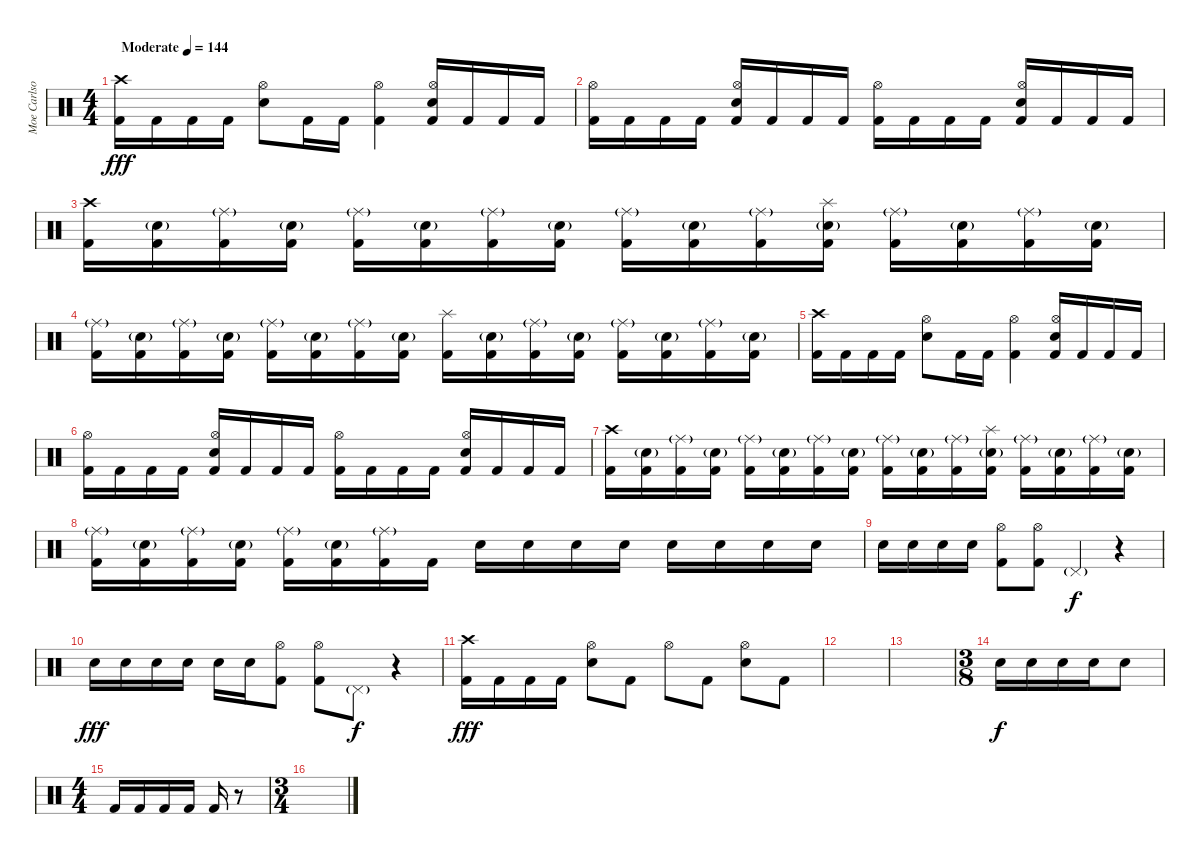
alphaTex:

\track ("Moe Carlson" "Moe Carlso") {solo instrument percussion}
\staff {score}
\articulation defaults
\ts (4 4)
\tempo (144 "Moderate")
\clef neutral
\ks c
("Crash high (hit)" "Kick (hit) 2").16{dy fff} "Kick (hit) 2".16 "Kick (hit) 2".16 "Kick (hit) 2".16 ("Hi-Hat (open)" "Electric Snare (hit)").8 "Kick (hit) 2".16 "Kick (hit) 2".16 ("Hi-Hat (open)" "Kick (hit) 2").4 ("Hi-Hat (open)" "Electric Snare (hit)" "Kick (hit) 2").16 "Kick (hit) 2".16 "Kick (hit) 2".16 "Kick (hit) 2".16 |
("Hi-Hat (open)" "Kick (hit) 2").16 "Kick (hit) 2".16 "Kick (hit) 2".16 "Kick (hit) 2".16 ("Hi-Hat (open)" "Electric Snare (hit)" "Kick (hit) 2").16 "Kick (hit) 2".16 "Kick (hit) 2".16 "Kick (hit) 2".16 ("Hi-Hat (open)" "Kick (hit) 2").16 "Kick (hit) 2".16 "Kick (hit) 2".16 "Kick (hit) 2".16 ("Hi-Hat (open)" "Electric Snare (hit)" "Kick (hit) 2").16 "Kick (hit) 2".16 "Kick (hit) 2".16 "Kick (hit) 2".16 |
("Crash high (hit)" "Kick (hit) 2").16 ("Snare (hit) 2"{g} "Kick (hit) 2").16 ("Ride (middle)"{g} "Kick (hit) 2").16 ("Snare (hit) 2"{g} "Kick (hit) 2").16 ("Ride (middle)"{g} "Kick (hit) 2").16 ("Snare (hit) 2"{g} "Kick (hit) 2").16 ("Ride (middle)"{g} "Kick (hit) 2").16 ("Snare (hit) 2"{g} "Kick (hit) 2").16 ("Ride (middle)"{g} "Kick (hit) 2").16 ("Snare (hit) 2"{g} "Kick (hit) 2").16 ("Ride (middle)"{g} "Kick (hit) 2").16 ("Splash (hit)" "Snare (hit) 2"{g} "Kick (hit) 2").16 ("Ride (middle)"{g} "Kick (hit) 2").16 ("Snare (hit) 2"{g} "Kick (hit) 2").16 ("Ride (middle)"{g} "Kick (hit) 2").16 ("Snare (hit) 2"{g} "Kick (hit) 2").16 |
("Ride (middle)"{g} "Kick (hit) 2").16 ("Snare (hit) 2"{g} "Kick (hit) 2").16 ("Ride (middle)"{g} "Kick (hit) 2").16 ("Snare (hit) 2"{g} "Kick (hit) 2").16 ("Ride (middle)"{g} "Kick (hit) 2").16 ("Snare (hit) 2"{g} "Kick (hit) 2").16 ("Ride (middle)"{g} "Kick (hit) 2").16 ("Snare (hit) 2"{g} "Kick (hit) 2").16 ("Splash (hit)" "Kick (hit) 2").16 ("Snare (hit) 2"{g} "Kick (hit) 2").16 ("Ride (middle)"{g} "Kick (hit) 2").16 ("Snare (hit) 2"{g} "Kick (hit) 2").16 ("Ride (middle)"{g} "Kick (hit) 2").16 ("Snare (hit) 2"{g} "Kick (hit) 2").16 ("Ride (middle)"{g} "Kick (hit) 2").16 ("Snare (hit) 2"{g} "Kick (hit) 2").16 |
("Crash high (hit)" "Kick (hit) 2").16 "Kick (hit) 2".16 "Kick (hit) 2".16 "Kick (hit) 2".16 ("Hi-Hat (open)" "Electric Snare (hit)").8 "Kick (hit) 2".16 "Kick (hit) 2".16 ("Hi-Hat (open)" "Kick (hit) 2").4 ("Hi-Hat (open)" "Electric Snare (hit)" "Kick (hit) 2").16 "Kick (hit) 2".16 "Kick (hit) 2".16 "Kick (hit) 2".16 |
("Hi-Hat (open)" "Kick (hit) 2").16 "Kick (hit) 2".16 "Kick (hit) 2".16 "Kick (hit) 2".16 ("Hi-Hat (open)" "Electric Snare (hit)" "Kick (hit) 2").16 "Kick (hit) 2".16 "Kick (hit) 2".16 "Kick (hit) 2".16 ("Hi-Hat (open)" "Kick (hit) 2").16 "Kick (hit) 2".16 "Kick (hit) 2".16 "Kick (hit) 2".16 ("Hi-Hat (open)" "Electric Snare (hit)" "Kick (hit) 2").16 "Kick (hit) 2".16 "Kick (hit) 2".16 "Kick (hit) 2".16 |
("Crash high (hit)" "Kick (hit) 2").16 ("Snare (hit) 2"{g} "Kick (hit) 2").16 ("Ride (middle)"{g} "Kick (hit) 2").16 ("Snare (hit) 2"{g} "Kick (hit) 2").16 ("Ride (middle)"{g} "Kick (hit) 2").16 ("Snare (hit) 2"{g} "Kick (hit) 2").16 ("Ride (middle)"{g} "Kick (hit) 2").16 ("Snare (hit) 2"{g} "Kick (hit) 2").16 ("Ride (middle)"{g} "Kick (hit) 2").16 ("Snare (hit) 2"{g} "Kick (hit) 2").16 ("Ride (middle)"{g} "Kick (hit) 2").16 ("Splash (hit)" "Snare (hit) 2"{g} "Kick (hit) 2").16 ("Ride (middle)"{g} "Kick (hit) 2").16 ("Snare (hit) 2"{g} "Kick (hit) 2").16 ("Ride (middle)"{g} "Kick (hit) 2").16 ("Snare (hit) 2"{g} "Kick (hit) 2").16 |
("Ride (middle)"{g} "Kick (hit) 2").16 ("Snare (hit) 2"{g} "Kick (hit) 2").16 ("Ride (middle)"{g} "Kick (hit) 2").16 ("Snare (hit) 2"{g} "Kick (hit) 2").16 ("Ride (middle)"{g} "Kick (hit) 2").16 ("Snare (hit) 2"{g} "Kick (hit) 2").16 ("Ride (middle)"{g} "Kick (hit) 2").16 "Kick (hit) 2".16 "Electric Snare (hit)".16 "Electric Snare (hit)".16 "Electric Snare (hit)".16 "Electric Snare (hit)".16 "Electric Snare (hit)".16 "Electric Snare (hit)".16 "Electric Snare (hit)".16 "Electric Snare (hit)".16 |
"Electric Snare (hit)".16 "Electric Snare (hit)".16 "Electric Snare (hit)".16 "Electric Snare (hit)".16 ("Hi-Hat (open)" "Kick (hit) 2").8 ("Hi-Hat (open)" "Kick (hit) 2").8 "Pedal Hi-Hat (hit)"{g}.4{dy f} r.4 |
"Electric Snare (hit)".16{dy fff} "Electric Snare (hit)".16 "Electric Snare (hit)".16 "Electric Snare (hit)".16 "Electric Snare (hit)".16 "Electric Snare (hit)".16 ("Hi-Hat (open)" "Kick (hit) 2").8 ("Hi-Hat (open)" "Kick (hit) 2").8 "Pedal Hi-Hat (hit)"{g}.8{dy f} r.4 |
("Crash high (hit)" "Kick (hit) 2").16{dy fff} "Kick (hit) 2".16 "Kick (hit) 2".16 "Kick (hit) 2".16 ("Hi-Hat (open)" "Electric Snare (hit)").8 "Kick (hit) 2".8 "Hi-Hat (open)".8 "Kick (hit) 2".8 ("Hi-Hat (open)" "Electric Snare (hit)").8 "Kick (hit) 2".8 |
|
|
\ts (3 8)
"Electric Snare (hit)".16{dy f} "Electric Snare (hit)".16 "Electric Snare (hit)".16 "Electric Snare (hit)".16 "Electric Snare (hit)".8 |
\ts (4 4)
"Kick (hit) 2".16 "Kick (hit) 2".16 "Kick (hit) 2".16 "Kick (hit) 2".16 "Kick (hit) 2".16 r.8 |
\ts (3 4)
